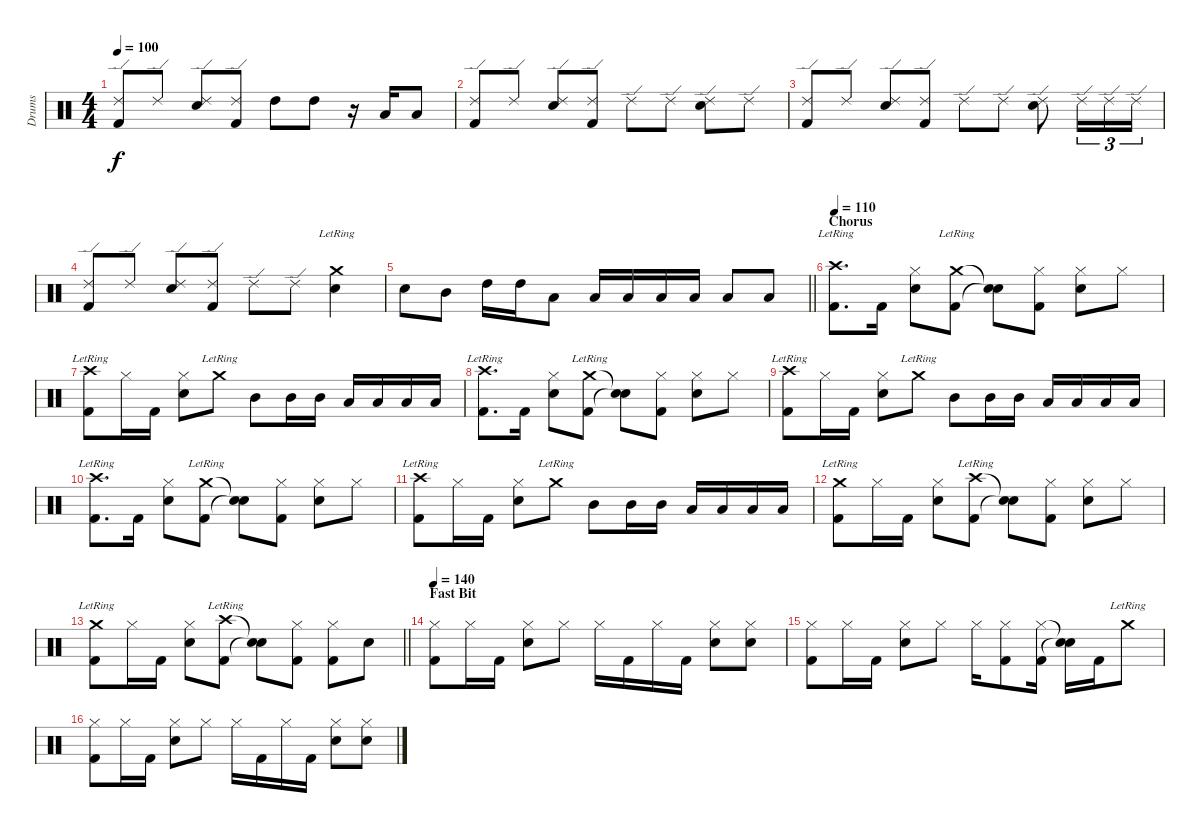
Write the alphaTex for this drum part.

\track ("Drums" "Drums") {instrument percussion}
\staff {score}
\articulation defaults
\ts (4 4)
\tempo 100
\clef neutral
\ks c
("Ride (edge) 2" "Kick (hit) 2").8{dy f} "Ride (edge) 2".8 ("Ride (edge) 2" "Snare (hit) 2").8 ("Ride (edge) 2" "Kick (hit) 2").8 "High Tom (hit)".8 "High Tom (hit)".8 r.16 "Low Tom (hit)".16 "Low Tom (hit)".8 |
("Ride (edge) 2" "Kick (hit) 2").8 "Ride (edge) 2".8 ("Ride (edge) 2" "Snare (hit) 2").8 ("Ride (edge) 2" "Kick (hit) 2").8 "Ride (edge) 2".8 "Ride (edge) 2".8 ("Ride (edge) 2" "Snare (hit) 2").8 "Ride (edge) 2".8 |
("Ride (edge) 2" "Kick (hit) 2").8 "Ride (edge) 2".8 ("Ride (edge) 2" "Snare (hit) 2").8 ("Ride (edge) 2" "Kick (hit) 2").8 "Ride (edge) 2".8 "Ride (edge) 2".8 ("Ride (edge) 2" "Snare (hit) 2").8 "Ride (edge) 2".16{tu (3 2)} "Ride (edge) 2".16{tu (3 2)} "Ride (edge) 2".16{tu (3 2)} |
("Ride (edge) 2" "Kick (hit) 2").8 "Ride (edge) 2".8 ("Ride (edge) 2" "Snare (hit) 2").8 ("Ride (edge) 2" "Kick (hit) 2").8 "Ride (edge) 2".8 "Ride (edge) 2".8 ("Crash medium (hit)"{lr} "Snare (hit) 2").4 |
\barLineRight lightlight "Snare (hit) 2".8 "Mid Tom (hit)".8 "High Tom (hit)".16 "High Tom (hit)".16 "Low Tom (hit)".8 "Low Tom (hit)".16 "Low Tom (hit)".16 "Low Tom (hit)".16 "Low Tom (hit)".16 "Low Tom (hit)".8 "Low Tom (hit)".8
|
\section ("" "Chorus")
\tempo 110
("Crash high (hit)"{lr} "Kick (hit) 2").8{d} "Kick (hit) 2".16 ("Hi-Hat (closed)" "Snare (hit) 2").8 ("Crash medium (hit)"{lr} "Kick (hit) 2").8 ("Snare (hit)"{t} "Snare (hit)"{t}).8 ("Hi-Hat (closed)" "Kick (hit) 2").8 ("Hi-Hat (closed)" "Snare (hit) 2").8 "Hi-Hat (closed)".8 |
("Crash high (hit)"{lr} "Kick (hit) 2").8 "Hi-Hat (closed)".16 "Kick (hit) 2".16 ("Hi-Hat (closed)" "Snare (hit) 2").8 "Crash medium (hit)"{lr}.8 "Mid Tom (hit)".8 "Mid Tom (hit)".16 "Mid Tom (hit)".16 "Low Tom (hit)".16 "Low Tom (hit)".16 "Low Tom (hit)".16 "Low Tom (hit)".16 |
("Crash high (hit)"{lr} "Kick (hit) 2").8{d} "Kick (hit) 2".16 ("Hi-Hat (closed)" "Snare (hit) 2").8 ("Crash medium (hit)"{lr} "Kick (hit) 2").8 ("Snare (hit)"{t} "Snare (hit)"{t}).8 ("Hi-Hat (closed)" "Kick (hit) 2").8 ("Hi-Hat (closed)" "Snare (hit) 2").8 "Hi-Hat (closed)".8 |
("Crash high (hit)"{lr} "Kick (hit) 2").8 "Hi-Hat (closed)".16 "Kick (hit) 2".16 ("Hi-Hat (closed)" "Snare (hit) 2").8 "Crash medium (hit)"{lr}.8 "Mid Tom (hit)".8 "Mid Tom (hit)".16 "Mid Tom (hit)".16 "Low Tom (hit)".16 "Low Tom (hit)".16 "Low Tom (hit)".16 "Low Tom (hit)".16 |
("Crash high (hit)"{lr} "Kick (hit) 2").8{d} "Kick (hit) 2".16 ("Hi-Hat (closed)" "Snare (hit) 2").8 ("Crash medium (hit)"{lr} "Kick (hit) 2").8 ("Snare (hit)"{t} "Snare (hit)"{t}).8 ("Hi-Hat (closed)" "Kick (hit) 2").8 ("Hi-Hat (closed)" "Snare (hit) 2").8 "Hi-Hat (closed)".8 |
("Crash high (hit)"{lr} "Kick (hit) 2").8 "Hi-Hat (closed)".16 "Kick (hit) 2".16 ("Hi-Hat (closed)" "Snare (hit) 2").8 "Crash medium (hit)"{lr}.8 "Mid Tom (hit)".8 "Mid Tom (hit)".16 "Mid Tom (hit)".16 "Low Tom (hit)".16 "Low Tom (hit)".16 "Low Tom (hit)".16 "Low Tom (hit)".16 |
("Crash medium (hit)"{lr} "Kick (hit) 2").8 "Hi-Hat (closed)".16 "Kick (hit) 2".16 ("Hi-Hat (closed)" "Snare (hit) 2").8 ("Crash high (hit)"{lr} "Kick (hit) 2").8 ("Snare (hit)"{t} "Snare (hit)"{t}).8 ("Hi-Hat (closed)" "Kick (hit) 2").8 ("Hi-Hat (closed)" "Snare (hit) 2").8 "Hi-Hat (closed)".8 |
\barLineRight lightlight
("Crash medium (hit)"{lr} "Kick (hit) 2").8 "Hi-Hat (closed)".16 "Kick (hit) 2".16 ("Hi-Hat (closed)" "Snare (hit) 2").8 ("Crash high (hit)"{lr} "Kick (hit) 2").8 ("Snare (hit)"{t} "Snare (hit)"{t}).8 ("Hi-Hat (closed)" "Kick (hit) 2").8 ("Hi-Hat (closed)" "Kick (hit) 2").8 "Snare (hit) 2".8 |
\section ("" "Fast Bit")
\tempo 140
("Hi-Hat (closed)" "Kick (hit) 2").8 "Hi-Hat (closed)".16 "Kick (hit) 2".16 ("Hi-Hat (closed)" "Snare (hit) 2").8 "Hi-Hat (closed)".8 "Hi-Hat (closed)".16 "Kick (hit) 2".16 "Hi-Hat (closed)".16 "Kick (hit) 2".16 ("Hi-Hat (closed)" "Snare (hit) 2").8 ("Hi-Hat (closed)" "Snare (hit) 2").8 |
("Hi-Hat (closed)" "Kick (hit) 2").8 "Hi-Hat (closed)".16 "Kick (hit) 2".16 ("Hi-Hat (closed)" "Snare (hit) 2").8 "Hi-Hat (closed)".8 "Hi-Hat (closed)".16 ("Hi-Hat (closed)" "Kick (hit) 2").8 ("Hi-Hat (closed)" "Kick (hit) 2").16 ("Snare (hit)"{t} "Snare (hit)"{t}).16 "Kick (hit) 2".16 "Crash medium (hit)"{lr}.8 |
("Hi-Hat (closed)" "Kick (hit) 2").8 "Hi-Hat (closed)".16 "Kick (hit) 2".16 ("Hi-Hat (closed)" "Snare (hit) 2").8 "Hi-Hat (closed)".8 "Hi-Hat (closed)".16 "Kick (hit) 2".16 "Hi-Hat (closed)".16 "Kick (hit) 2".16 ("Hi-Hat (closed)" "Snare (hit) 2").8 ("Hi-Hat (closed)" "Snare (hit) 2").8
